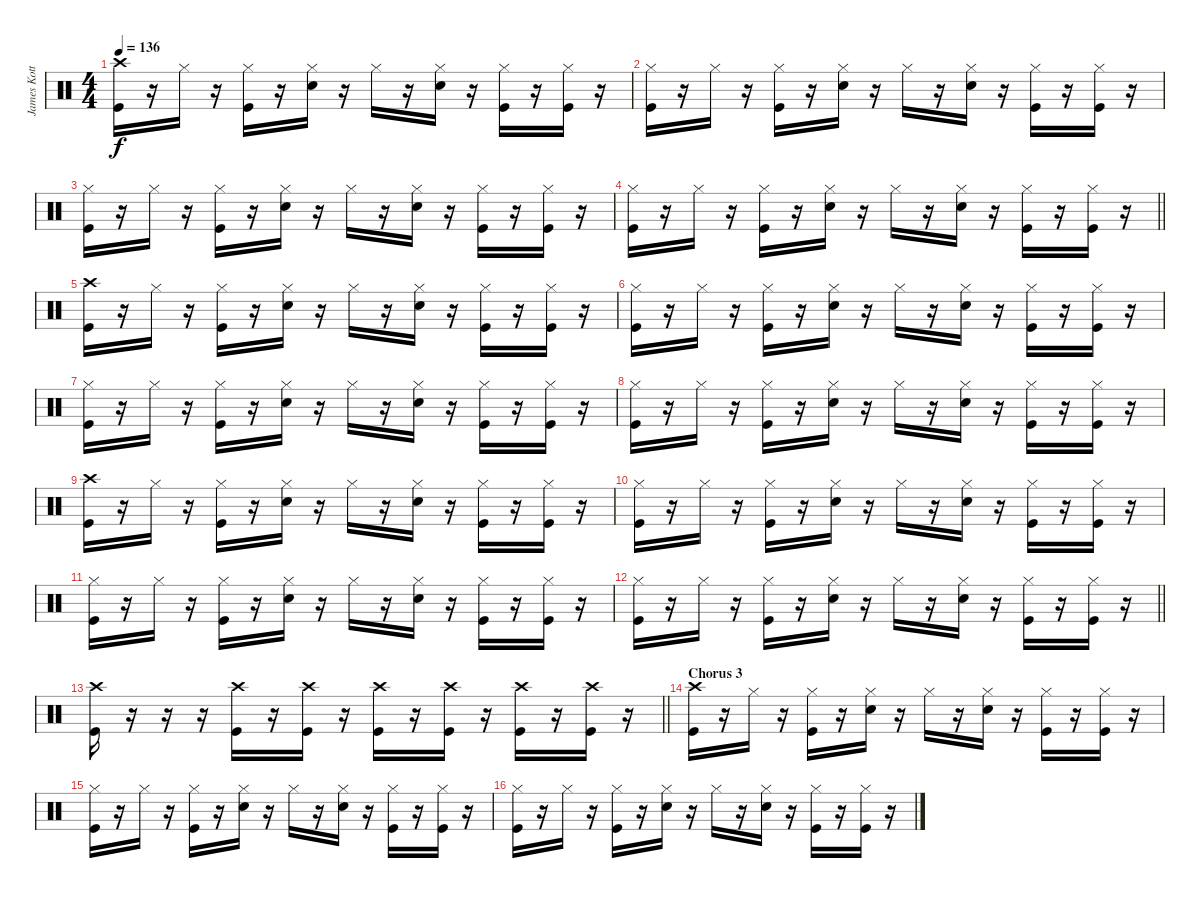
\track ("James Kottak" "James Kott") {instrument percussion}
\staff {score}
\articulation defaults
\ts (4 4)
\tempo 136
\clef neutral
\ks c
("Crash high (hit)" "Kick (hit)").16{dy f} r.16 "Hi-Hat (closed)".16 r.16 ("Hi-Hat (closed)" "Kick (hit)").16 r.16 ("Hi-Hat (closed)" "Snare (hit) 2").16 r.16 "Hi-Hat (closed)".16 r.16 ("Hi-Hat (closed)" "Snare (hit) 2").16 r.16 ("Hi-Hat (closed)" "Kick (hit)").16 r.16 ("Hi-Hat (closed)" "Kick (hit)").16 r.16 |
("Hi-Hat (closed)" "Kick (hit)").16 r.16 "Hi-Hat (closed)".16 r.16 ("Hi-Hat (closed)" "Kick (hit)").16 r.16 ("Hi-Hat (closed)" "Snare (hit) 2").16 r.16 "Hi-Hat (closed)".16 r.16 ("Hi-Hat (closed)" "Snare (hit) 2").16 r.16 ("Hi-Hat (closed)" "Kick (hit)").16 r.16 ("Hi-Hat (closed)" "Kick (hit)").16 r.16 |
("Hi-Hat (closed)" "Kick (hit)").16 r.16 "Hi-Hat (closed)".16 r.16 ("Hi-Hat (closed)" "Kick (hit)").16 r.16 ("Hi-Hat (closed)" "Snare (hit) 2").16 r.16 "Hi-Hat (closed)".16 r.16 ("Hi-Hat (closed)" "Snare (hit) 2").16 r.16 ("Hi-Hat (closed)" "Kick (hit)").16 r.16 ("Hi-Hat (closed)" "Kick (hit)").16 r.16 |
\barLineRight lightlight
("Hi-Hat (closed)" "Kick (hit)").16 r.16 "Hi-Hat (closed)".16 r.16 ("Hi-Hat (closed)" "Kick (hit)").16 r.16 ("Hi-Hat (closed)" "Snare (hit) 2").16 r.16 "Hi-Hat (closed)".16 r.16 ("Hi-Hat (closed)" "Snare (hit) 2").16 r.16 ("Hi-Hat (closed)" "Kick (hit)").16 r.16 ("Hi-Hat (closed)" "Kick (hit)").16 r.16 |
("Crash high (hit)" "Kick (hit)").16 r.16 "Hi-Hat (closed)".16 r.16 ("Hi-Hat (closed)" "Kick (hit)").16 r.16 ("Hi-Hat (closed)" "Snare (hit) 2").16 r.16 "Hi-Hat (closed)".16 r.16 ("Hi-Hat (closed)" "Snare (hit) 2").16 r.16 ("Hi-Hat (closed)" "Kick (hit)").16 r.16 ("Hi-Hat (closed)" "Kick (hit)").16 r.16 |
("Hi-Hat (closed)" "Kick (hit)").16 r.16 "Hi-Hat (closed)".16 r.16 ("Hi-Hat (closed)" "Kick (hit)").16 r.16 ("Hi-Hat (closed)" "Snare (hit) 2").16 r.16 "Hi-Hat (closed)".16 r.16 ("Hi-Hat (closed)" "Snare (hit) 2").16 r.16 ("Hi-Hat (closed)" "Kick (hit)").16 r.16 ("Hi-Hat (closed)" "Kick (hit)").16 r.16 |
("Hi-Hat (closed)" "Kick (hit)").16 r.16 "Hi-Hat (closed)".16 r.16 ("Hi-Hat (closed)" "Kick (hit)").16 r.16 ("Hi-Hat (closed)" "Snare (hit) 2").16 r.16 "Hi-Hat (closed)".16 r.16 ("Hi-Hat (closed)" "Snare (hit) 2").16 r.16 ("Hi-Hat (closed)" "Kick (hit)").16 r.16 ("Hi-Hat (closed)" "Kick (hit)").16 r.16 |
("Hi-Hat (closed)" "Kick (hit)").16 r.16 "Hi-Hat (closed)".16 r.16 ("Hi-Hat (closed)" "Kick (hit)").16 r.16 ("Hi-Hat (closed)" "Snare (hit) 2").16 r.16 "Hi-Hat (closed)".16 r.16 ("Hi-Hat (closed)" "Snare (hit) 2").16 r.16 ("Hi-Hat (closed)" "Kick (hit)").16 r.16 ("Hi-Hat (closed)" "Kick (hit)").16 r.16 |
("Crash high (hit)" "Kick (hit)").16 r.16 "Hi-Hat (closed)".16 r.16 ("Hi-Hat (closed)" "Kick (hit)").16 r.16 ("Hi-Hat (closed)" "Snare (hit) 2").16 r.16 "Hi-Hat (closed)".16 r.16 ("Hi-Hat (closed)" "Snare (hit) 2").16 r.16 ("Hi-Hat (closed)" "Kick (hit)").16 r.16 ("Hi-Hat (closed)" "Kick (hit)").16 r.16 |
("Hi-Hat (closed)" "Kick (hit)").16 r.16 "Hi-Hat (closed)".16 r.16 ("Hi-Hat (closed)" "Kick (hit)").16 r.16 ("Hi-Hat (closed)" "Snare (hit) 2").16 r.16 "Hi-Hat (closed)".16 r.16 ("Hi-Hat (closed)" "Snare (hit) 2").16 r.16 ("Hi-Hat (closed)" "Kick (hit)").16 r.16 ("Hi-Hat (closed)" "Kick (hit)").16 r.16 |
("Hi-Hat (closed)" "Kick (hit)").16 r.16 "Hi-Hat (closed)".16 r.16 ("Hi-Hat (closed)" "Kick (hit)").16 r.16 ("Hi-Hat (closed)" "Snare (hit) 2").16 r.16 "Hi-Hat (closed)".16 r.16 ("Hi-Hat (closed)" "Snare (hit) 2").16 r.16 ("Hi-Hat (closed)" "Kick (hit)").16 r.16 ("Hi-Hat (closed)" "Kick (hit)").16 r.16 |
\barLineRight lightlight
("Hi-Hat (closed)" "Kick (hit)").16 r.16 "Hi-Hat (closed)".16 r.16 ("Hi-Hat (closed)" "Kick (hit)").16 r.16 ("Hi-Hat (closed)" "Snare (hit) 2").16 r.16 "Hi-Hat (closed)".16 r.16 ("Hi-Hat (closed)" "Snare (hit) 2").16 r.16 ("Hi-Hat (closed)" "Kick (hit)").16 r.16 ("Hi-Hat (closed)" "Kick (hit)").16 r.16 |
\barLineRight lightlight
("Crash high (hit)" "Kick (hit)").16 r.16 r.16 r.16 ("Crash high (hit)" "Kick (hit)").16 r.16 ("Crash high (hit)" "Kick (hit)").16 r.16 ("Crash high (hit)" "Kick (hit)").16 r.16 ("Crash high (hit)" "Kick (hit)").16 r.16 ("Crash high (hit)" "Kick (hit)").16 r.16 ("Crash high (hit)" "Kick (hit)").16 r.16 |
\section ("" "Chorus 3")
("Crash high (hit)" "Kick (hit)").16 r.16 "Hi-Hat (closed)".16 r.16 ("Hi-Hat (closed)" "Kick (hit)").16 r.16 ("Hi-Hat (closed)" "Snare (hit) 2").16 r.16 "Hi-Hat (closed)".16 r.16 ("Hi-Hat (closed)" "Snare (hit) 2").16 r.16 ("Hi-Hat (closed)" "Kick (hit)").16 r.16 ("Hi-Hat (closed)" "Kick (hit)").16 r.16 |
("Hi-Hat (closed)" "Kick (hit)").16 r.16 "Hi-Hat (closed)".16 r.16 ("Hi-Hat (closed)" "Kick (hit)").16 r.16 ("Hi-Hat (closed)" "Snare (hit) 2").16 r.16 "Hi-Hat (closed)".16 r.16 ("Hi-Hat (closed)" "Snare (hit) 2").16 r.16 ("Hi-Hat (closed)" "Kick (hit)").16 r.16 ("Hi-Hat (closed)" "Kick (hit)").16 r.16 |
("Hi-Hat (closed)" "Kick (hit)").16 r.16 "Hi-Hat (closed)".16 r.16 ("Hi-Hat (closed)" "Kick (hit)").16 r.16 ("Hi-Hat (closed)" "Snare (hit) 2").16 r.16 "Hi-Hat (closed)".16 r.16 ("Hi-Hat (closed)" "Snare (hit) 2").16 r.16 ("Hi-Hat (closed)" "Kick (hit)").16 r.16 ("Hi-Hat (closed)" "Kick (hit)").16 r.16
